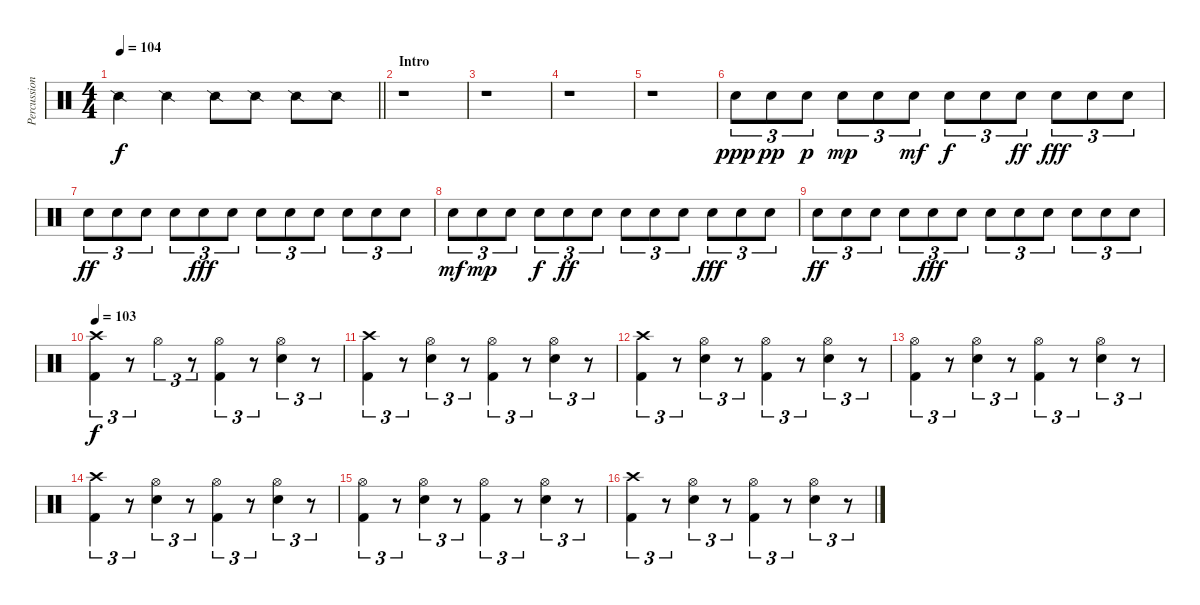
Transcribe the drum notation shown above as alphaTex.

\track ("Percussion" "Percussion") {instrument percussion}
\staff {score}
\articulation defaults
\ts (4 4)
\tempo 104
\tempo 114
\tempo 104
\clef neutral
\barLineRight lightlight
\ks c "Snare (side stick) 2".4{dy f} "Snare (side stick) 2".4 "Snare (side stick) 2".8 "Snare (side stick) 2".8 "Snare (side stick) 2".8 "Snare (side stick) 2".8
|
\section ("" "Intro")
r.1 |
r.1 |
r.1 |
r.1 |
"Electric Snare (hit)".8{tu (3 2) dy ppp} "Electric Snare (hit)".8{tu (3 2) dy pp} "Electric Snare (hit)".8{tu (3 2) dy p} "Electric Snare (hit)".8{tu (3 2) dy mp} "Electric Snare (hit)".8{tu (3 2)} "Electric Snare (hit)".8{tu (3 2) dy mf} "Electric Snare (hit)".8{tu (3 2) dy f} "Electric Snare (hit)".8{tu (3 2)} "Electric Snare (hit)".8{tu (3 2) dy ff} "Electric Snare (hit)".8{tu (3 2) dy fff} "Electric Snare (hit)".8{tu (3 2)} "Electric Snare (hit)".8{tu (3 2)} |
"Electric Snare (hit)".8{tu (3 2) dy ff} "Electric Snare (hit)".8{tu (3 2)} "Electric Snare (hit)".8{tu (3 2)} "Electric Snare (hit)".8{tu (3 2)} "Electric Snare (hit)".8{tu (3 2) dy fff} "Electric Snare (hit)".8{tu (3 2)} "Electric Snare (hit)".8{tu (3 2)} "Electric Snare (hit)".8{tu (3 2)} "Electric Snare (hit)".8{tu (3 2)} "Electric Snare (hit)".8{tu (3 2)} "Electric Snare (hit)".8{tu (3 2)} "Electric Snare (hit)".8{tu (3 2)} |
"Electric Snare (hit)".8{tu (3 2) dy mf} "Electric Snare (hit)".8{tu (3 2) dy mp} "Electric Snare (hit)".8{tu (3 2)} "Electric Snare (hit)".8{tu (3 2) dy f} "Electric Snare (hit)".8{tu (3 2) dy ff} "Electric Snare (hit)".8{tu (3 2)} "Electric Snare (hit)".8{tu (3 2)} "Electric Snare (hit)".8{tu (3 2)} "Electric Snare (hit)".8{tu (3 2)} "Electric Snare (hit)".8{tu (3 2) dy fff} "Electric Snare (hit)".8{tu (3 2)} "Electric Snare (hit)".8{tu (3 2)} |
"Electric Snare (hit)".8{tu (3 2) dy ff} "Electric Snare (hit)".8{tu (3 2)} "Electric Snare (hit)".8{tu (3 2)} "Electric Snare (hit)".8{tu (3 2)} "Electric Snare (hit)".8{tu (3 2) dy fff} "Electric Snare (hit)".8{tu (3 2)} "Electric Snare (hit)".8{tu (3 2)} "Electric Snare (hit)".8{tu (3 2)} "Electric Snare (hit)".8{tu (3 2)} "Electric Snare (hit)".8{tu (3 2)} "Electric Snare (hit)".8{tu (3 2)} "Electric Snare (hit)".8{tu (3 2)} |
\tempo 103
("Crash high (hit)" "Kick (hit) 2").4{tu (3 2) dy f} r.8{tu (3 2)} "Hi-Hat (open)".4{tu (3 2)} r.8{tu (3 2)} ("Hi-Hat (open)" "Kick (hit) 2").4{tu (3 2)} r.8{tu (3 2)} ("Hi-Hat (open)" "Electric Snare (hit)").4{tu (3 2)} r.8{tu (3 2)} |
("Crash high (hit)" "Kick (hit) 2").4{tu (3 2)} r.8{tu (3 2)} ("Hi-Hat (open)" "Electric Snare (hit)").4{tu (3 2)} r.8{tu (3 2)} ("Hi-Hat (open)" "Kick (hit) 2").4{tu (3 2)} r.8{tu (3 2)} ("Hi-Hat (open)" "Electric Snare (hit)").4{tu (3 2)} r.8{tu (3 2)} |
("Crash high (hit)" "Kick (hit) 2").4{tu (3 2)} r.8{tu (3 2)} ("Hi-Hat (open)" "Electric Snare (hit)").4{tu (3 2)} r.8{tu (3 2)} ("Hi-Hat (open)" "Kick (hit) 2").4{tu (3 2)} r.8{tu (3 2)} ("Hi-Hat (open)" "Electric Snare (hit)").4{tu (3 2)} r.8{tu (3 2)} |
("Hi-Hat (open)" "Kick (hit) 2").4{tu (3 2)} r.8{tu (3 2)} ("Hi-Hat (open)" "Electric Snare (hit)").4{tu (3 2)} r.8{tu (3 2)} ("Hi-Hat (open)" "Kick (hit) 2").4{tu (3 2)} r.8{tu (3 2)} ("Hi-Hat (open)" "Electric Snare (hit)").4{tu (3 2)} r.8{tu (3 2)} |
("Crash high (hit)" "Kick (hit) 2").4{tu (3 2)} r.8{tu (3 2)} ("Hi-Hat (open)" "Electric Snare (hit)").4{tu (3 2)} r.8{tu (3 2)} ("Hi-Hat (open)" "Kick (hit) 2").4{tu (3 2)} r.8{tu (3 2)} ("Hi-Hat (open)" "Electric Snare (hit)").4{tu (3 2)} r.8{tu (3 2)} |
("Hi-Hat (open)" "Kick (hit) 2").4{tu (3 2)} r.8{tu (3 2)} ("Hi-Hat (open)" "Electric Snare (hit)").4{tu (3 2)} r.8{tu (3 2)} ("Hi-Hat (open)" "Kick (hit) 2").4{tu (3 2)} r.8{tu (3 2)} ("Hi-Hat (open)" "Electric Snare (hit)").4{tu (3 2)} r.8{tu (3 2)} |
("Crash high (hit)" "Kick (hit) 2").4{tu (3 2)} r.8{tu (3 2)} ("Hi-Hat (open)" "Electric Snare (hit)").4{tu (3 2)} r.8{tu (3 2)} ("Hi-Hat (open)" "Kick (hit) 2").4{tu (3 2)} r.8{tu (3 2)} ("Hi-Hat (open)" "Electric Snare (hit)").4{tu (3 2)} r.8{tu (3 2)}
